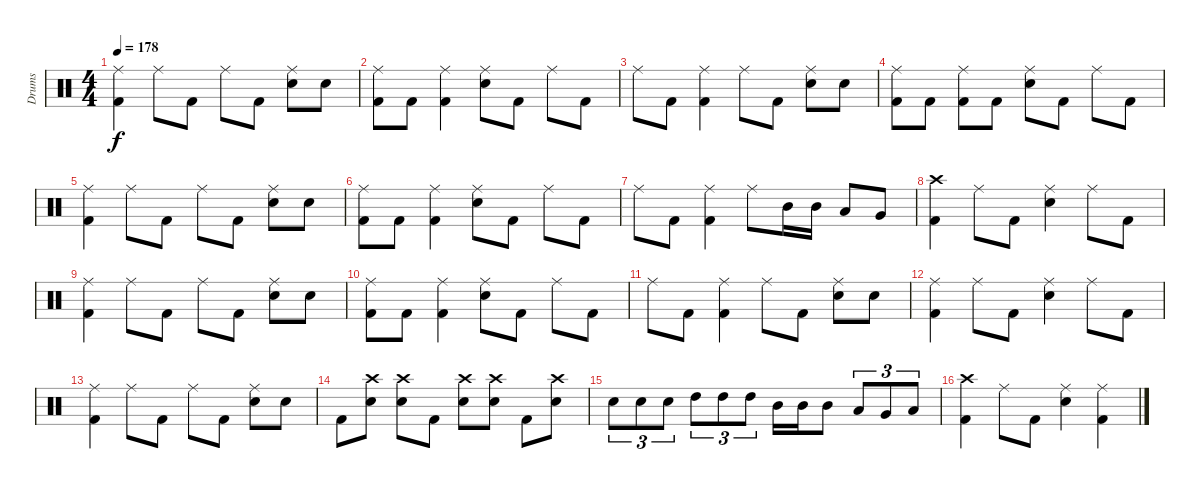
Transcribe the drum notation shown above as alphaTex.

\track ("Drums" "Drums") {instrument percussion}
\staff {score}
\articulation defaults
\ts (4 4)
\tempo 178
\clef neutral
\ks c
("Ride (middle)" "Kick (hit) 2").4{dy f} "Ride (middle)".8 "Kick (hit) 2".8 "Ride (middle)".8 "Kick (hit) 2".8 ("Ride (middle)" "Electric Snare (hit)").8 "Electric Snare (hit)".8 |
("Ride (middle)" "Kick (hit) 2").8 "Kick (hit) 2".8 ("Ride (middle)" "Kick (hit) 2").4 ("Ride (middle)" "Electric Snare (hit)").8 "Kick (hit) 2".8 "Ride (middle)".8 "Kick (hit) 2".8 |
"Ride (middle)".8 "Kick (hit) 2".8 ("Ride (middle)" "Kick (hit) 2").4 "Ride (middle)".8 "Kick (hit) 2".8 ("Ride (middle)" "Electric Snare (hit)").8 "Electric Snare (hit)".8 |
("Ride (middle)" "Kick (hit) 2").8 "Kick (hit) 2".8 ("Ride (middle)" "Kick (hit) 2").8 "Kick (hit) 2".8 ("Ride (middle)" "Electric Snare (hit)").8 "Kick (hit) 2".8 "Ride (middle)".8 "Kick (hit) 2".8 |
("Ride (middle)" "Kick (hit) 2").4 "Ride (middle)".8 "Kick (hit) 2".8 "Ride (middle)".8 "Kick (hit) 2".8 ("Ride (middle)" "Electric Snare (hit)").8 "Electric Snare (hit)".8 |
("Ride (middle)" "Kick (hit) 2").8 "Kick (hit) 2".8 ("Ride (middle)" "Kick (hit) 2").4 ("Ride (middle)" "Electric Snare (hit)").8 "Kick (hit) 2".8 "Ride (middle)".8 "Kick (hit) 2".8 |
"Ride (middle)".8 "Kick (hit) 2".8 ("Ride (middle)" "Kick (hit) 2").4 "Ride (middle)".8 "Mid Tom (hit)".16 "Mid Tom (hit)".16 "Low Tom (hit)".8 "Very Low Tom (hit)".8 |
("Crash high (hit)" "Kick (hit) 2").4 "Ride (middle)".8 "Kick (hit) 2".8 ("Ride (middle)" "Electric Snare (hit)").4 "Ride (middle)".8 "Kick (hit) 2".8 |
("Ride (middle)" "Kick (hit) 2").4 "Ride (middle)".8 "Kick (hit) 2".8 "Ride (middle)".8 "Kick (hit) 2".8 ("Ride (middle)" "Electric Snare (hit)").8 "Electric Snare (hit)".8 |
("Ride (middle)" "Kick (hit) 2").8 "Kick (hit) 2".8 ("Ride (middle)" "Kick (hit) 2").4 ("Ride (middle)" "Electric Snare (hit)").8 "Kick (hit) 2".8 "Ride (middle)".8 "Kick (hit) 2".8 |
"Ride (middle)".8 "Kick (hit) 2".8 ("Ride (middle)" "Kick (hit) 2").4 "Ride (middle)".8 "Kick (hit) 2".8 ("Ride (middle)" "Electric Snare (hit)").8 "Electric Snare (hit)".8 |
("Ride (middle)" "Kick (hit) 2").4 "Ride (middle)".8 "Kick (hit) 2".8 ("Ride (middle)" "Electric Snare (hit)").4 "Ride (middle)".8 "Kick (hit) 2".8 |
("Ride (middle)" "Kick (hit) 2").4 "Ride (middle)".8 "Kick (hit) 2".8 "Ride (middle)".8 "Kick (hit) 2".8 ("Ride (middle)" "Electric Snare (hit)").8 "Electric Snare (hit)".8 |
"Kick (hit) 2".8 ("Crash high (hit)" "Electric Snare (hit)").8 ("Crash high (hit)" "Electric Snare (hit)").8 "Kick (hit) 2".8 ("Crash high (hit)" "Electric Snare (hit)").8 ("Crash high (hit)" "Electric Snare (hit)").8 "Kick (hit) 2".8 ("Crash high (hit)" "Electric Snare (hit)").8 |
"Electric Snare (hit)".8{tu (3 2)} "Electric Snare (hit)".8{tu (3 2)} "Electric Snare (hit)".8{tu (3 2)} "High Tom (hit)".8{tu (3 2)} "High Tom (hit)".8{tu (3 2)} "High Tom (hit)".8{tu (3 2)} "Mid Tom (hit)".16 "Mid Tom (hit)".16 "Mid Tom (hit)".8 "Low Tom (hit)".8{tu (3 2)} "Very Low Tom (hit)".8{tu (3 2)} "Low Floor Tom (hit)".8{tu (3 2)} |
("Crash high (hit)" "Kick (hit) 2").4 "Ride (middle)".8 "Kick (hit) 2".8 ("Ride (middle)" "Electric Snare (hit)").4 ("Ride (middle)" "Kick (hit) 2").4
